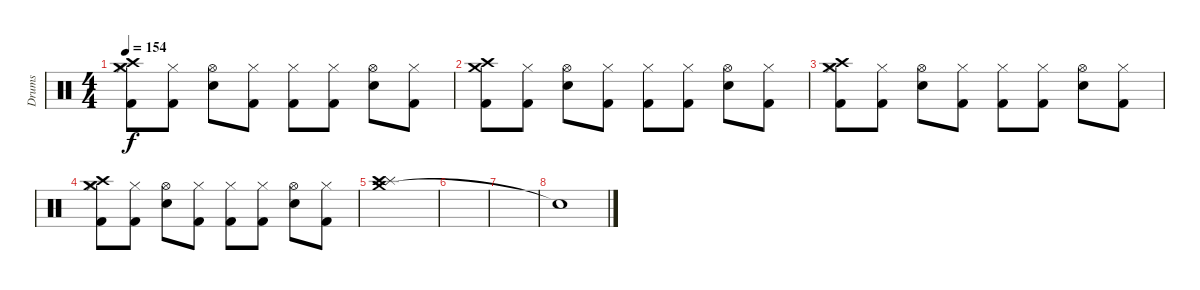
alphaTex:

\track ("Drums" "Drums") {instrument percussion}
\staff {score}
\articulation defaults
\ts (4 4)
\tempo 154
\clef neutral
\ks c
("Crash high (hit)" "Crash medium (hit)" "Hi-Hat (closed)" "Kick (hit) 2").8{dy f} ("Hi-Hat (closed)" "Kick (hit) 2").8 ("Hi-Hat (open)" "Snare (hit) 2").8 ("Hi-Hat (closed)" "Kick (hit) 2").8 ("Hi-Hat (closed)" "Kick (hit) 2").8 ("Hi-Hat (closed)" "Kick (hit) 2").8 ("Hi-Hat (open)" "Snare (hit) 2").8 ("Hi-Hat (closed)" "Kick (hit) 2").8 |
("Crash medium (hit)" "Crash high (hit)" "Kick (hit) 2").8 ("Hi-Hat (closed)" "Kick (hit) 2").8 ("Hi-Hat (open)" "Snare (hit) 2").8 ("Hi-Hat (closed)" "Kick (hit) 2").8 ("Hi-Hat (closed)" "Kick (hit) 2").8 ("Hi-Hat (closed)" "Kick (hit) 2").8 ("Hi-Hat (open)" "Snare (hit) 2").8 ("Hi-Hat (closed)" "Kick (hit) 2").8 |
("Crash high (hit)" "Crash medium (hit)" "Hi-Hat (closed)" "Kick (hit) 2").8 ("Hi-Hat (closed)" "Kick (hit) 2").8 ("Hi-Hat (open)" "Snare (hit) 2").8 ("Hi-Hat (closed)" "Kick (hit) 2").8 ("Hi-Hat (closed)" "Kick (hit) 2").8 ("Hi-Hat (closed)" "Kick (hit) 2").8 ("Hi-Hat (open)" "Snare (hit) 2").8 ("Hi-Hat (closed)" "Kick (hit) 2").8 |
("Crash high (hit)" "Crash medium (hit)" "Hi-Hat (closed)" "Kick (hit) 2").8 ("Hi-Hat (closed)" "Kick (hit) 2").8 ("Hi-Hat (open)" "Snare (hit) 2").8 ("Hi-Hat (closed)" "Kick (hit) 2").8 ("Hi-Hat (closed)" "Kick (hit) 2").8 ("Hi-Hat (closed)" "Kick (hit) 2").8 ("Hi-Hat (open)" "Snare (hit) 2").8 ("Hi-Hat (closed)" "Kick (hit) 2").8 |
("Crash medium (hit)" "Splash (hit)" "Crash high (hit)").1 |
|
|
"Snare (hit)"{t}.1
